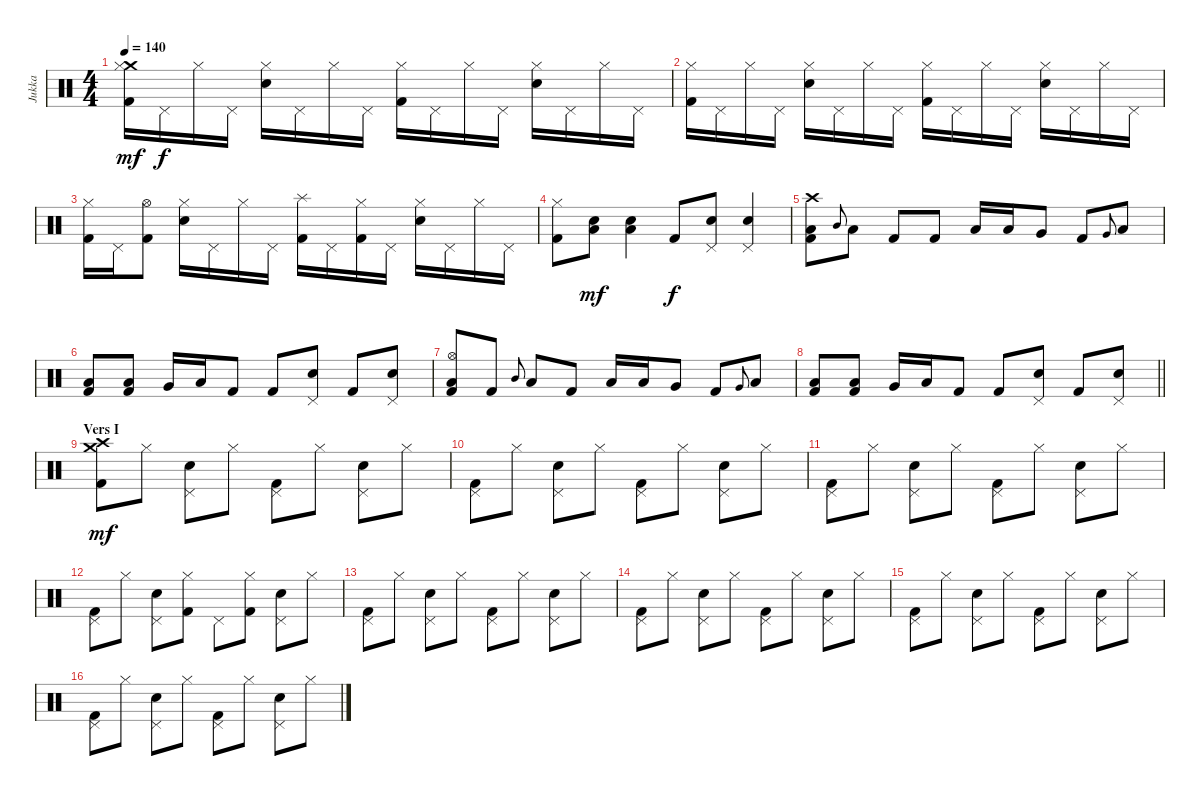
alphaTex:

\track ("Jukka" "Jukka") {instrument percussion}
\staff {score}
\articulation defaults
\ts (4 4)
\tempo 140
\clef neutral
\ks aminor
("Crash medium (hit)" "Hi-Hat (closed)" "Kick (hit) 2").16{dy mf} "Pedal Hi-Hat (hit)".16{dy f} "Hi-Hat (closed)".16 "Pedal Hi-Hat (hit)".16 ("Hi-Hat (closed)" "Electric Snare (hit)").16 "Pedal Hi-Hat (hit)".16 "Hi-Hat (closed)".16 "Pedal Hi-Hat (hit)".16 ("Hi-Hat (closed)" "Kick (hit) 2").16 "Pedal Hi-Hat (hit)".16 "Hi-Hat (closed)".16 "Pedal Hi-Hat (hit)".16 ("Hi-Hat (closed)" "Electric Snare (hit)").16 "Pedal Hi-Hat (hit)".16 "Hi-Hat (closed)".16 "Pedal Hi-Hat (hit)".16 |
("Hi-Hat (closed)" "Kick (hit) 2").16 "Pedal Hi-Hat (hit)".16 "Hi-Hat (closed)".16 "Pedal Hi-Hat (hit)".16 ("Hi-Hat (closed)" "Electric Snare (hit)").16 "Pedal Hi-Hat (hit)".16 "Hi-Hat (closed)".16 "Pedal Hi-Hat (hit)".16 ("Hi-Hat (closed)" "Kick (hit) 2").16 "Pedal Hi-Hat (hit)".16 "Hi-Hat (closed)".16 "Pedal Hi-Hat (hit)".16 ("Hi-Hat (closed)" "Electric Snare (hit)").16 "Pedal Hi-Hat (hit)".16 "Hi-Hat (closed)".16 "Pedal Hi-Hat (hit)".16 |
("Hi-Hat (closed)" "Kick (hit) 2").16 "Pedal Hi-Hat (hit)".16 ("Hi-Hat (open)" "Kick (hit) 2").8 ("Hi-Hat (closed)" "Electric Snare (hit)").16 "Pedal Hi-Hat (hit)".16 "Hi-Hat (closed)".16 "Pedal Hi-Hat (hit)".16 ("Splash (hit)" "Kick (hit) 2").16 "Pedal Hi-Hat (hit)".16 ("Hi-Hat (closed)" "Kick (hit) 2").16 "Pedal Hi-Hat (hit)".16 ("Hi-Hat (closed)" "Electric Snare (hit)").16 "Pedal Hi-Hat (hit)".16 "Hi-Hat (closed)".16 "Pedal Hi-Hat (hit)".16 |
("Hi-Hat (closed)" "Kick (hit) 2").8 ("Low Floor Tom (hit)" "Electric Snare (hit)").8{dy mf} ("Low Floor Tom (hit)" "Electric Snare (hit)").4 "Kick (hit) 2".8{dy f} ("Pedal Hi-Hat (hit)" "Electric Snare (hit)").8 ("Pedal Hi-Hat (hit)" "Electric Snare (hit)").4 |
("Crash high (hit)" "Low Floor Tom (hit)" "Kick (hit) 2").8 "Mid Tom (hit)".8{gr onbeat} "Low Tom (hit)".8 "Kick (hit) 2".8 "Kick (hit) 2".8 "Low Tom (hit)".16 "Low Tom (hit)".16 "Very Low Tom (hit)".8 "Kick (hit) 2".8 "Very Low Tom (hit)".8{gr onbeat} "Low Floor Tom (hit)".8 |
("Low Floor Tom (hit)" "Kick (hit) 2").8 ("Low Floor Tom (hit)" "Kick (hit) 2").8 "Very Low Tom (hit)".16 "Low Floor Tom (hit)".16 "Kick (hit) 2".8 "Kick (hit) 2".8 ("Pedal Hi-Hat (hit)" "Electric Snare (hit)").8 "Kick (hit) 2".8 ("Pedal Hi-Hat (hit)" "Electric Snare (hit)").8 |
("Hi-Hat (open)" "Low Floor Tom (hit)" "Kick (hit) 2").8 "Kick (hit) 2".8 "Mid Tom (hit)".8{gr onbeat} "Low Tom (hit)".8 "Kick (hit) 2".8 "Low Tom (hit)".16 "Low Tom (hit)".16 "Very Low Tom (hit)".8 "Kick (hit) 2".8 "Very Low Tom (hit)".8{gr onbeat} "Low Floor Tom (hit)".8 |
\barLineRight lightlight
("Low Floor Tom (hit)" "Kick (hit) 2").8 ("Low Floor Tom (hit)" "Kick (hit) 2").8 "Very Low Tom (hit)".16 "Low Floor Tom (hit)".16 "Kick (hit) 2".8 "Kick (hit) 2".8 ("Pedal Hi-Hat (hit)" "Electric Snare (hit)").8 "Kick (hit) 2".8 ("Pedal Hi-Hat (hit)" "Electric Snare (hit)").8 |
\section ("" "Vers I")
("Crash medium (hit)" "Crash high (hit)" "Kick (hit) 2").8{dy mf} "Hi-Hat (closed)".8 ("Pedal Hi-Hat (hit)" "Electric Snare (hit)").8 "Hi-Hat (closed)".8 ("Pedal Hi-Hat (hit)" "Kick (hit) 2").8 "Hi-Hat (closed)".8 ("Pedal Hi-Hat (hit)" "Electric Snare (hit)").8 "Hi-Hat (closed)".8 |
("Pedal Hi-Hat (hit)" "Kick (hit) 2").8 "Hi-Hat (closed)".8 ("Pedal Hi-Hat (hit)" "Electric Snare (hit)").8 "Hi-Hat (closed)".8 ("Pedal Hi-Hat (hit)" "Kick (hit) 2").8 "Hi-Hat (closed)".8 ("Pedal Hi-Hat (hit)" "Electric Snare (hit)").8 "Hi-Hat (closed)".8 |
("Pedal Hi-Hat (hit)" "Kick (hit) 2").8 "Hi-Hat (closed)".8 ("Pedal Hi-Hat (hit)" "Electric Snare (hit)").8 "Hi-Hat (closed)".8 ("Pedal Hi-Hat (hit)" "Kick (hit) 2").8 "Hi-Hat (closed)".8 ("Pedal Hi-Hat (hit)" "Electric Snare (hit)").8 "Hi-Hat (closed)".8 |
("Pedal Hi-Hat (hit)" "Kick (hit) 2").8 "Hi-Hat (closed)".8 ("Pedal Hi-Hat (hit)" "Electric Snare (hit)").8 ("Hi-Hat (closed)" "Kick (hit) 2").8 "Pedal Hi-Hat (hit)".8 ("Hi-Hat (closed)" "Kick (hit) 2").8 ("Pedal Hi-Hat (hit)" "Electric Snare (hit)").8 "Hi-Hat (closed)".8 |
("Pedal Hi-Hat (hit)" "Kick (hit) 2").8 "Hi-Hat (closed)".8 ("Pedal Hi-Hat (hit)" "Electric Snare (hit)").8 "Hi-Hat (closed)".8 ("Pedal Hi-Hat (hit)" "Kick (hit) 2").8 "Hi-Hat (closed)".8 ("Pedal Hi-Hat (hit)" "Electric Snare (hit)").8 "Hi-Hat (closed)".8 |
("Pedal Hi-Hat (hit)" "Kick (hit) 2").8 "Hi-Hat (closed)".8 ("Pedal Hi-Hat (hit)" "Electric Snare (hit)").8 "Hi-Hat (closed)".8 ("Pedal Hi-Hat (hit)" "Kick (hit) 2").8 "Hi-Hat (closed)".8 ("Pedal Hi-Hat (hit)" "Electric Snare (hit)").8 "Hi-Hat (closed)".8 |
("Pedal Hi-Hat (hit)" "Kick (hit) 2").8 "Hi-Hat (closed)".8 ("Pedal Hi-Hat (hit)" "Electric Snare (hit)").8 "Hi-Hat (closed)".8 ("Pedal Hi-Hat (hit)" "Kick (hit) 2").8 "Hi-Hat (closed)".8 ("Pedal Hi-Hat (hit)" "Electric Snare (hit)").8 "Hi-Hat (closed)".8 |
("Pedal Hi-Hat (hit)" "Kick (hit) 2").8 "Hi-Hat (closed)".8 ("Pedal Hi-Hat (hit)" "Electric Snare (hit)").8 "Hi-Hat (closed)".8 ("Pedal Hi-Hat (hit)" "Kick (hit) 2").8 "Hi-Hat (closed)".8 ("Pedal Hi-Hat (hit)" "Electric Snare (hit)").8 "Hi-Hat (closed)".8
